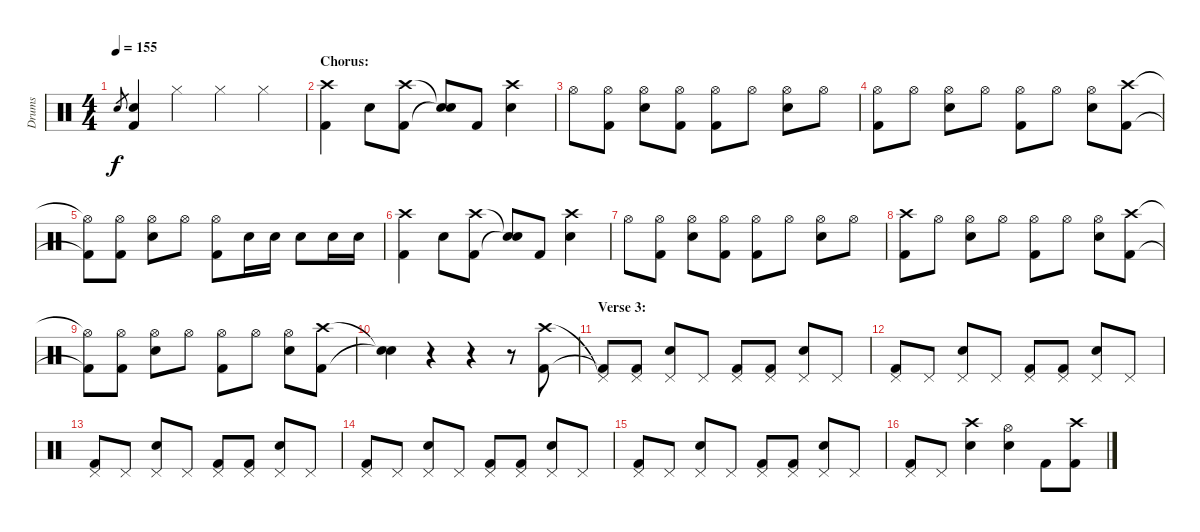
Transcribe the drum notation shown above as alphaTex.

\track ("Drums" "Drums") {instrument percussion}
\staff {score}
\articulation defaults
\ts (4 4)
\tempo 155
\clef neutral
\ks c "Electric Snare (hit)".8{gr dy f}
("Electric Snare (hit)" "Kick (hit) 2").4 "Hi-Hat (closed)".4 "Hi-Hat (closed)".4 "Hi-Hat (closed)".4 |
\section ("" "Chorus:")
("Crash high (hit)" "Kick (hit) 2").4 "Electric Snare (hit)".8 ("Crash high (hit)" "Kick (hit) 2").8 ("Snare (hit)"{t} "Snare (hit)"{t}).8 "Kick (hit) 2".8 ("Crash high (hit)" "Electric Snare (hit)").4 |
"Hi-Hat (open)".8 ("Hi-Hat (open)" "Kick (hit) 2").8 ("Hi-Hat (open)" "Electric Snare (hit)").8 ("Hi-Hat (open)" "Kick (hit) 2").8 ("Hi-Hat (open)" "Kick (hit) 2").8 "Hi-Hat (open)".8 ("Hi-Hat (open)" "Electric Snare (hit)").8 "Hi-Hat (open)".8 |
("Hi-Hat (open)" "Kick (hit) 2").8 "Hi-Hat (open)".8 ("Hi-Hat (open)" "Electric Snare (hit)").8 "Hi-Hat (open)".8 ("Hi-Hat (open)" "Kick (hit) 2").8 "Hi-Hat (open)".8 ("Hi-Hat (open)" "Electric Snare (hit)").8 ("Crash high (hit)" "Kick (hit) 2").8 |
("Hi-Hat (open)"{t} "Kick (hit) 2"{t}).8 ("Hi-Hat (open)" "Kick (hit) 2").8 ("Hi-Hat (open)" "Electric Snare (hit)").8 "Hi-Hat (open)".8 ("Hi-Hat (open)" "Kick (hit) 2").8 "Electric Snare (hit)".16 "Electric Snare (hit)".16 "Electric Snare (hit)".8 "Electric Snare (hit)".16 "Electric Snare (hit)".16 |
("Crash high (hit)" "Kick (hit) 2").4 "Electric Snare (hit)".8 ("Crash high (hit)" "Kick (hit) 2").8 ("Snare (hit)"{t} "Snare (hit)"{t}).8 "Kick (hit) 2".8 ("Crash high (hit)" "Electric Snare (hit)").4 |
"Hi-Hat (open)".8 ("Hi-Hat (open)" "Kick (hit) 2").8 ("Hi-Hat (open)" "Electric Snare (hit)").8 ("Hi-Hat (open)" "Kick (hit) 2").8 ("Hi-Hat (open)" "Kick (hit) 2").8 "Hi-Hat (open)".8 ("Hi-Hat (open)" "Electric Snare (hit)").8 "Hi-Hat (open)".8 |
("Crash high (hit)" "Kick (hit) 2").8 "Hi-Hat (open)".8 ("Hi-Hat (open)" "Electric Snare (hit)").8 "Hi-Hat (open)".8 ("Hi-Hat (open)" "Kick (hit) 2").8 "Hi-Hat (open)".8 ("Hi-Hat (open)" "Electric Snare (hit)").8 ("Crash high (hit)" "Kick (hit) 2").8 |
("Hi-Hat (open)"{t} "Kick (hit) 2"{t}).8 ("Hi-Hat (open)" "Kick (hit) 2").8 ("Hi-Hat (open)" "Electric Snare (hit)").8 "Hi-Hat (open)".8 ("Hi-Hat (open)" "Kick (hit) 2").8 "Hi-Hat (open)".8 ("Hi-Hat (open)" "Electric Snare (hit)").8 ("Crash high (hit)" "Kick (hit) 2").8 |
("Snare (hit)"{t} "Snare (hit)"{t}).4 r.4 r.4 r.8 ("Crash high (hit)" "Kick (hit) 2").8 |
\section ("" "Verse 3:")
("Pedal Hi-Hat (hit)"{t} "Kick (hit) 2"{t}).8 ("Pedal Hi-Hat (hit)" "Kick (hit) 2").8 ("Pedal Hi-Hat (hit)" "Electric Snare (hit)").8 "Pedal Hi-Hat (hit)".8 ("Pedal Hi-Hat (hit)" "Kick (hit) 2").8 ("Pedal Hi-Hat (hit)" "Kick (hit) 2").8 ("Pedal Hi-Hat (hit)" "Electric Snare (hit)").8 "Pedal Hi-Hat (hit)".8 |
("Pedal Hi-Hat (hit)" "Kick (hit) 2").8 "Pedal Hi-Hat (hit)".8 ("Pedal Hi-Hat (hit)" "Electric Snare (hit)").8 "Pedal Hi-Hat (hit)".8 ("Pedal Hi-Hat (hit)" "Kick (hit) 2").8 ("Pedal Hi-Hat (hit)" "Kick (hit) 2").8 ("Pedal Hi-Hat (hit)" "Electric Snare (hit)").8 "Pedal Hi-Hat (hit)".8 |
("Pedal Hi-Hat (hit)" "Kick (hit) 2").8 "Pedal Hi-Hat (hit)".8 ("Pedal Hi-Hat (hit)" "Electric Snare (hit)").8 "Pedal Hi-Hat (hit)".8 ("Pedal Hi-Hat (hit)" "Kick (hit) 2").8 ("Pedal Hi-Hat (hit)" "Kick (hit) 2").8 ("Pedal Hi-Hat (hit)" "Electric Snare (hit)").8 "Pedal Hi-Hat (hit)".8 |
("Pedal Hi-Hat (hit)" "Kick (hit) 2").8 "Pedal Hi-Hat (hit)".8 ("Pedal Hi-Hat (hit)" "Electric Snare (hit)").8 "Pedal Hi-Hat (hit)".8 ("Pedal Hi-Hat (hit)" "Kick (hit) 2").8 ("Pedal Hi-Hat (hit)" "Kick (hit) 2").8 ("Pedal Hi-Hat (hit)" "Electric Snare (hit)").8 "Pedal Hi-Hat (hit)".8 |
("Pedal Hi-Hat (hit)" "Kick (hit) 2").8 "Pedal Hi-Hat (hit)".8 ("Pedal Hi-Hat (hit)" "Electric Snare (hit)").8 "Pedal Hi-Hat (hit)".8 ("Pedal Hi-Hat (hit)" "Kick (hit) 2").8 ("Pedal Hi-Hat (hit)" "Kick (hit) 2").8 ("Pedal Hi-Hat (hit)" "Electric Snare (hit)").8 "Pedal Hi-Hat (hit)".8 |
("Pedal Hi-Hat (hit)" "Kick (hit) 2").8 "Pedal Hi-Hat (hit)".8 ("Crash high (hit)" "Electric Snare (hit)").4 ("Hi-Hat (open)" "Electric Snare (hit)").4 "Kick (hit) 2".8 ("Crash high (hit)" "Kick (hit) 2").8
